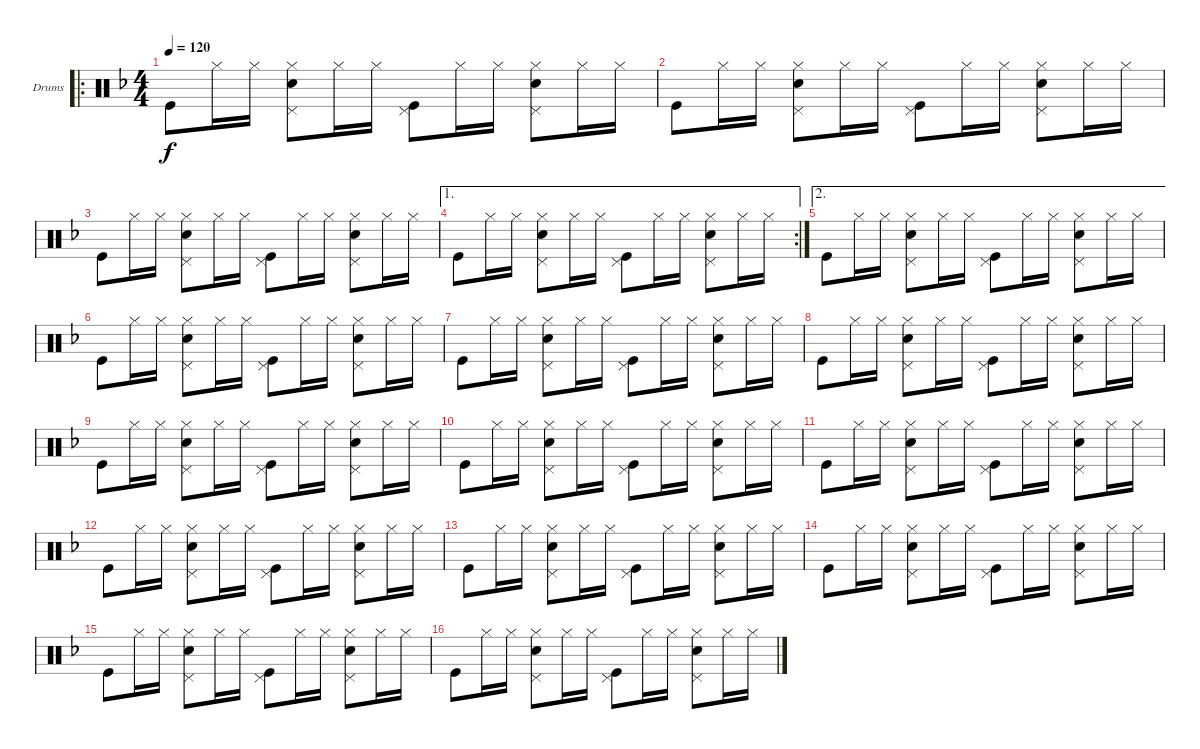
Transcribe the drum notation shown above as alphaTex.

\defaultSystemsLayout 4
\bracketExtendMode groupsimilarinstruments
\firstSystemTrackNameOrientation horizontal
\otherSystemsTrackNameOrientation horizontal
\track ("Drumkit" "Drums") {instrument percussion}
\staff {score}
\articulation defaults
\ro
\ts (4 4)
\tempo 120
\clef neutral
\scale
0.502222
\ks f "Kick (hit)".8{dy f} "Hi-Hat (closed)".16 "Hi-Hat (closed)".16
("Snare (hit) 2" "Pedal Hi-Hat (hit)" "Hi-Hat (closed)").8 "Hi-Hat (closed)".16 "Hi-Hat (closed)".16 ("Kick (hit)" "Pedal Hi-Hat (hit)").8 "Hi-Hat (closed)".16 "Hi-Hat (closed)".16 ("Snare (hit) 2" "Pedal Hi-Hat (hit)" "Hi-Hat (closed)").8 "Hi-Hat (closed)".16 "Hi-Hat (closed)".16 |
\scale
0.248889 "Kick (hit)".8 "Hi-Hat (closed)".16 "Hi-Hat (closed)".16 ("Snare (hit) 2" "Pedal Hi-Hat (hit)" "Hi-Hat (closed)").8 "Hi-Hat (closed)".16 "Hi-Hat (closed)".16 ("Kick (hit)" "Pedal Hi-Hat (hit)").8 "Hi-Hat (closed)".16 "Hi-Hat (closed)".16 ("Snare (hit) 2" "Pedal Hi-Hat (hit)" "Hi-Hat (closed)").8 "Hi-Hat (closed)".16 "Hi-Hat (closed)".16 |
\scale
0.248889 "Kick (hit)".8 "Hi-Hat (closed)".16 "Hi-Hat (closed)".16 ("Snare (hit) 2" "Pedal Hi-Hat (hit)" "Hi-Hat (closed)").8 "Hi-Hat (closed)".16 "Hi-Hat (closed)".16 ("Kick (hit)" "Pedal Hi-Hat (hit)").8 "Hi-Hat (closed)".16 "Hi-Hat (closed)".16 ("Snare (hit) 2" "Pedal Hi-Hat (hit)" "Hi-Hat (closed)").8 "Hi-Hat (closed)".16 "Hi-Hat (closed)".16 |
\ae 1
\rc 2
\scale
0.356322 "Kick (hit)".8 "Hi-Hat (closed)".16 "Hi-Hat (closed)".16 ("Snare (hit) 2" "Pedal Hi-Hat (hit)" "Hi-Hat (closed)").8 "Hi-Hat (closed)".16 "Hi-Hat (closed)".16 ("Kick (hit)" "Pedal Hi-Hat (hit)").8 "Hi-Hat (closed)".16 "Hi-Hat (closed)".16 ("Snare (hit) 2" "Pedal Hi-Hat (hit)" "Hi-Hat (closed)").8 "Hi-Hat (closed)".16 "Hi-Hat (closed)".16 |
\ae 2
\scale
0.321839 "Kick (hit)".8 "Hi-Hat (closed)".16 "Hi-Hat (closed)".16 ("Snare (hit) 2" "Pedal Hi-Hat (hit)" "Hi-Hat (closed)").8 "Hi-Hat (closed)".16 "Hi-Hat (closed)".16 ("Kick (hit)" "Pedal Hi-Hat (hit)").8 "Hi-Hat (closed)".16 "Hi-Hat (closed)".16 ("Snare (hit) 2" "Pedal Hi-Hat (hit)" "Hi-Hat (closed)").8 "Hi-Hat (closed)".16 "Hi-Hat (closed)".16 |
\scale
0.321839 "Kick (hit)".8 "Hi-Hat (closed)".16 "Hi-Hat (closed)".16 ("Snare (hit) 2" "Pedal Hi-Hat (hit)" "Hi-Hat (closed)").8 "Hi-Hat (closed)".16 "Hi-Hat (closed)".16 ("Kick (hit)" "Pedal Hi-Hat (hit)").8 "Hi-Hat (closed)".16 "Hi-Hat (closed)".16 ("Snare (hit) 2" "Pedal Hi-Hat (hit)" "Hi-Hat (closed)").8 "Hi-Hat (closed)".16 "Hi-Hat (closed)".16 |
\scale
0.333333 "Kick (hit)".8 "Hi-Hat (closed)".16 "Hi-Hat (closed)".16 ("Snare (hit) 2" "Pedal Hi-Hat (hit)" "Hi-Hat (closed)").8 "Hi-Hat (closed)".16 "Hi-Hat (closed)".16 ("Kick (hit)" "Pedal Hi-Hat (hit)").8 "Hi-Hat (closed)".16 "Hi-Hat (closed)".16 ("Snare (hit) 2" "Pedal Hi-Hat (hit)" "Hi-Hat (closed)").8 "Hi-Hat (closed)".16 "Hi-Hat (closed)".16 |
\scale
0.333333 "Kick (hit)".8 "Hi-Hat (closed)".16 "Hi-Hat (closed)".16 ("Snare (hit) 2" "Pedal Hi-Hat (hit)" "Hi-Hat (closed)").8 "Hi-Hat (closed)".16 "Hi-Hat (closed)".16 ("Kick (hit)" "Pedal Hi-Hat (hit)").8 "Hi-Hat (closed)".16 "Hi-Hat (closed)".16 ("Snare (hit) 2" "Pedal Hi-Hat (hit)" "Hi-Hat (closed)").8 "Hi-Hat (closed)".16 "Hi-Hat (closed)".16 |
\scale
0.333333 "Kick (hit)".8 "Hi-Hat (closed)".16 "Hi-Hat (closed)".16 ("Snare (hit) 2" "Pedal Hi-Hat (hit)" "Hi-Hat (closed)").8 "Hi-Hat (closed)".16 "Hi-Hat (closed)".16 ("Kick (hit)" "Pedal Hi-Hat (hit)").8 "Hi-Hat (closed)".16 "Hi-Hat (closed)".16 ("Snare (hit) 2" "Pedal Hi-Hat (hit)" "Hi-Hat (closed)").8 "Hi-Hat (closed)".16 "Hi-Hat (closed)".16 |
\scale
0.333333 "Kick (hit)".8 "Hi-Hat (closed)".16 "Hi-Hat (closed)".16 ("Snare (hit) 2" "Pedal Hi-Hat (hit)" "Hi-Hat (closed)").8 "Hi-Hat (closed)".16 "Hi-Hat (closed)".16 ("Kick (hit)" "Pedal Hi-Hat (hit)").8 "Hi-Hat (closed)".16 "Hi-Hat (closed)".16 ("Snare (hit) 2" "Pedal Hi-Hat (hit)" "Hi-Hat (closed)").8 "Hi-Hat (closed)".16 "Hi-Hat (closed)".16 |
\scale
0.333333 "Kick (hit)".8 "Hi-Hat (closed)".16 "Hi-Hat (closed)".16 ("Snare (hit) 2" "Pedal Hi-Hat (hit)" "Hi-Hat (closed)").8 "Hi-Hat (closed)".16 "Hi-Hat (closed)".16 ("Kick (hit)" "Pedal Hi-Hat (hit)").8 "Hi-Hat (closed)".16 "Hi-Hat (closed)".16 ("Snare (hit) 2" "Pedal Hi-Hat (hit)" "Hi-Hat (closed)").8 "Hi-Hat (closed)".16 "Hi-Hat (closed)".16 |
\scale
0.333333 "Kick (hit)".8 "Hi-Hat (closed)".16 "Hi-Hat (closed)".16 ("Snare (hit) 2" "Pedal Hi-Hat (hit)" "Hi-Hat (closed)").8 "Hi-Hat (closed)".16 "Hi-Hat (closed)".16 ("Kick (hit)" "Pedal Hi-Hat (hit)").8 "Hi-Hat (closed)".16 "Hi-Hat (closed)".16 ("Snare (hit) 2" "Pedal Hi-Hat (hit)" "Hi-Hat (closed)").8 "Hi-Hat (closed)".16 "Hi-Hat (closed)".16 |
"Kick (hit)".8 "Hi-Hat (closed)".16 "Hi-Hat (closed)".16 ("Snare (hit) 2" "Pedal Hi-Hat (hit)" "Hi-Hat (closed)").8 "Hi-Hat (closed)".16 "Hi-Hat (closed)".16 ("Kick (hit)" "Pedal Hi-Hat (hit)").8 "Hi-Hat (closed)".16 "Hi-Hat (closed)".16 ("Snare (hit) 2" "Pedal Hi-Hat (hit)" "Hi-Hat (closed)").8 "Hi-Hat (closed)".16 "Hi-Hat (closed)".16 |
"Kick (hit)".8 "Hi-Hat (closed)".16 "Hi-Hat (closed)".16 ("Snare (hit) 2" "Pedal Hi-Hat (hit)" "Hi-Hat (closed)").8 "Hi-Hat (closed)".16 "Hi-Hat (closed)".16 ("Kick (hit)" "Pedal Hi-Hat (hit)").8 "Hi-Hat (closed)".16 "Hi-Hat (closed)".16 ("Snare (hit) 2" "Pedal Hi-Hat (hit)" "Hi-Hat (closed)").8 "Hi-Hat (closed)".16 "Hi-Hat (closed)".16 |
"Kick (hit)".8 "Hi-Hat (closed)".16 "Hi-Hat (closed)".16 ("Snare (hit) 2" "Pedal Hi-Hat (hit)" "Hi-Hat (closed)").8 "Hi-Hat (closed)".16 "Hi-Hat (closed)".16 ("Kick (hit)" "Pedal Hi-Hat (hit)").8 "Hi-Hat (closed)".16 "Hi-Hat (closed)".16 ("Snare (hit) 2" "Pedal Hi-Hat (hit)" "Hi-Hat (closed)").8 "Hi-Hat (closed)".16 "Hi-Hat (closed)".16 |
"Kick (hit)".8 "Hi-Hat (closed)".16 "Hi-Hat (closed)".16 ("Snare (hit) 2" "Pedal Hi-Hat (hit)" "Hi-Hat (closed)").8 "Hi-Hat (closed)".16 "Hi-Hat (closed)".16 ("Kick (hit)" "Pedal Hi-Hat (hit)").8 "Hi-Hat (closed)".16 "Hi-Hat (closed)".16 ("Snare (hit) 2" "Pedal Hi-Hat (hit)" "Hi-Hat (closed)").8 "Hi-Hat (closed)".16 "Hi-Hat (closed)".16
